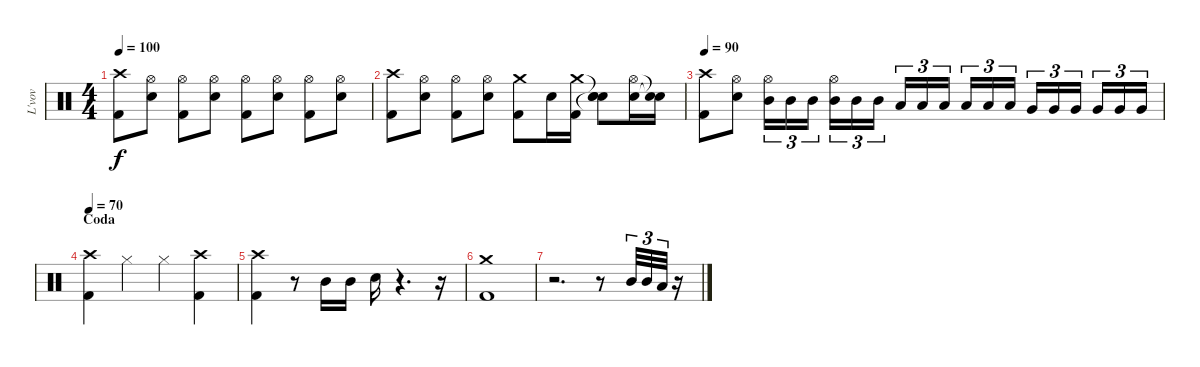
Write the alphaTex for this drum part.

\track ("L'vov" "L'vov") {instrument percussion}
\staff {score}
\articulation defaults
\ts (4 4)
\tempo 100
\clef neutral
\ks c
("Kick (hit) 2" "Crash high (hit)").8{dy f} ("Snare (hit) 2" "Hi-Hat (open)").8 ("Kick (hit) 2" "Hi-Hat (open)").8 ("Snare (hit) 2" "Hi-Hat (open)").8 ("Kick (hit) 2" "Hi-Hat (open)").8 ("Snare (hit) 2" "Hi-Hat (open)").8 ("Kick (hit) 2" "Hi-Hat (open)").8 ("Snare (hit) 2" "Hi-Hat (open)").8 |
("Kick (hit) 2" "Crash high (hit)").8 ("Snare (hit) 2" "Hi-Hat (open)").8 ("Kick (hit) 2" "Hi-Hat (open)").8 ("Snare (hit) 2" "Hi-Hat (open)").8 ("Kick (hit) 2" "Crash medium (hit)").8 "Snare (hit) 2".16 ("Kick (hit) 2" "Crash medium (hit)").16 ("Snare (hit)"{t} "Snare (hit)"{t} "Snare (hit)").8 ("Snare (hit) 2" "Hi-Hat (open)").16 ("Snare (hit)"{t} "Snare (hit)"{t}).16 |
\tempo 90
("Kick (hit) 2" "Crash high (hit)").8 ("Snare (hit) 2" "Hi-Hat (open)").8 ("Mid Tom (hit)" "Hi-Hat (open)").16{tu (3 2)} "Mid Tom (hit)".16{tu (3 2)} "Mid Tom (hit)".16{tu (3 2)} ("Mid Tom (hit)" "Hi-Hat (open)").16{tu (3 2)} "Mid Tom (hit)".16{tu (3 2)} "Mid Tom (hit)".16{tu (3 2)} "Low Tom (hit)".16{tu (3 2)} "Low Tom (hit)".16{tu (3 2)} "Low Tom (hit)".16{tu (3 2)} "Low Tom (hit)".16{tu (3 2)} "Low Tom (hit)".16{tu (3 2)} "Low Tom (hit)".16{tu (3 2)} "Very Low Tom (hit)".16{tu (3 2)} "Very Low Tom (hit)".16{tu (3 2)} "Very Low Tom (hit)".16{tu (3 2)} "Very Low Tom (hit)".16{tu (3 2)} "Very Low Tom (hit)".16{tu (3 2)} "Very Low Tom (hit)".16{tu (3 2)} |
\section ("" "Coda")
\tempo 70
("Kick (hit) 2" "Crash high (hit)").4 "Hi-Hat (closed)".4 "Hi-Hat (closed)".4 ("Kick (hit) 2" "Crash high (hit)").4 |
("Kick (hit) 2" "Crash high (hit)").4 r.8 "Mid Tom (hit)".16 "Mid Tom (hit)".16 "Snare (hit) 2".16 r.4{d} r.16 |
("Kick (hit) 2" "Crash medium (hit)").1 |
r.2{d} r.8 "Mid Tom (hit)".32{tu (3 2)} "Mid Tom (hit)".32{tu (3 2)} "Low Tom (hit)".32{tu (3 2)} r.16
